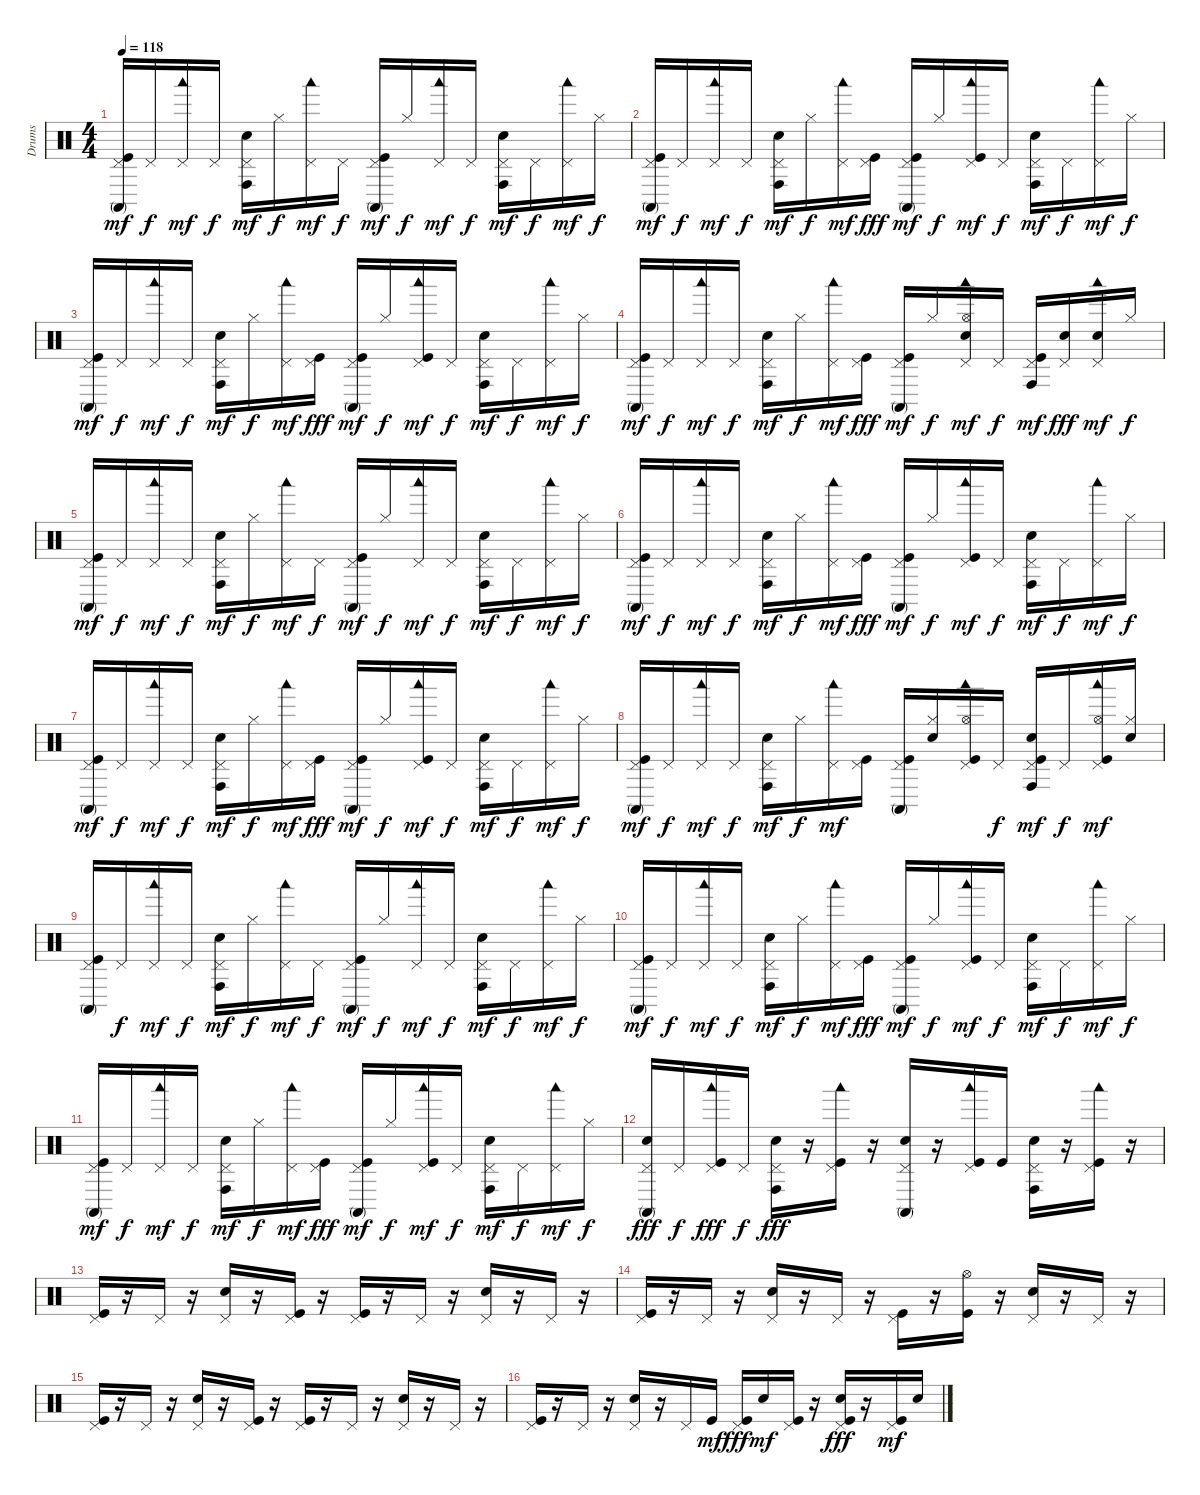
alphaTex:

\track ("Drums" "Drums") {instrument percussion}
\staff {score}
\articulation defaults
\ts (4 4)
\tempo 118
\clef neutral
\ks c
("Conga high (mute)" "Kick (hit)" "Pedal Hi-Hat (hit)").16{dy mf} "Pedal Hi-Hat (hit)".16{dy f} ("Woodblock low (hit)" "Pedal Hi-Hat (hit)").16{dy mf} "Pedal Hi-Hat (hit)".16{dy f} ("Electric Snare (hit)" "Conga high (hit)" "Pedal Hi-Hat (hit)").16{dy mf} "Hi-Hat (closed)".16{dy f} ("Woodblock low (hit)" "Pedal Hi-Hat (hit)").16{dy mf} "Pedal Hi-Hat (hit)".16{dy f} ("Kick (hit)" "Conga high (mute)" "Pedal Hi-Hat (hit)").16{dy mf} "Hi-Hat (closed)".16{dy f} ("Woodblock low (hit)" "Pedal Hi-Hat (hit)").16{dy mf} "Pedal Hi-Hat (hit)".16{dy f} ("Electric Snare (hit)" "Conga high (hit)" "Pedal Hi-Hat (hit)").16{dy mf} "Pedal Hi-Hat (hit)".16{dy f} ("Woodblock low (hit)" "Pedal Hi-Hat (hit)").16{dy mf} "Hi-Hat (closed)".16{dy f} |
("Kick (hit)" "Conga high (mute)" "Pedal Hi-Hat (hit)").16{dy mf} "Pedal Hi-Hat (hit)".16{dy f} ("Woodblock low (hit)" "Pedal Hi-Hat (hit)").16{dy mf} "Pedal Hi-Hat (hit)".16{dy f} ("Electric Snare (hit)" "Conga high (hit)" "Pedal Hi-Hat (hit)").16{dy mf} "Hi-Hat (closed)".16{dy f} ("Woodblock low (hit)" "Pedal Hi-Hat (hit)").16{dy mf} ("Kick (hit)" "Pedal Hi-Hat (hit)").16{dy fff} ("Kick (hit)" "Conga high (mute)" "Pedal Hi-Hat (hit)").16{dy mf} "Hi-Hat (closed)".16{dy f} ("Kick (hit)" "Woodblock low (hit)" "Pedal Hi-Hat (hit)").16{dy mf} "Pedal Hi-Hat (hit)".16{dy f} ("Electric Snare (hit)" "Conga high (hit)" "Pedal Hi-Hat (hit)").16{dy mf} "Pedal Hi-Hat (hit)".16{dy f} ("Woodblock low (hit)" "Pedal Hi-Hat (hit)").16{dy mf} "Hi-Hat (closed)".16{dy f} |
("Kick (hit)" "Conga high (mute)" "Pedal Hi-Hat (hit)").16{dy mf} "Pedal Hi-Hat (hit)".16{dy f} ("Woodblock low (hit)" "Pedal Hi-Hat (hit)").16{dy mf} "Pedal Hi-Hat (hit)".16{dy f} ("Electric Snare (hit)" "Conga high (hit)" "Pedal Hi-Hat (hit)").16{dy mf} "Hi-Hat (closed)".16{dy f} ("Woodblock low (hit)" "Pedal Hi-Hat (hit)").16{dy mf} ("Kick (hit)" "Pedal Hi-Hat (hit)").16{dy fff} ("Kick (hit)" "Conga high (mute)" "Pedal Hi-Hat (hit)").16{dy mf} "Hi-Hat (closed)".16{dy f} ("Kick (hit)" "Woodblock low (hit)" "Pedal Hi-Hat (hit)").16{dy mf} "Pedal Hi-Hat (hit)".16{dy f} ("Electric Snare (hit)" "Conga high (hit)" "Pedal Hi-Hat (hit)").16{dy mf} "Pedal Hi-Hat (hit)".16{dy f} ("Woodblock low (hit)" "Pedal Hi-Hat (hit)").16{dy mf} "Hi-Hat (closed)".16{dy f} |
("Kick (hit)" "Conga high (mute)" "Pedal Hi-Hat (hit)").16{dy mf} "Pedal Hi-Hat (hit)".16{dy f} ("Woodblock low (hit)" "Pedal Hi-Hat (hit)").16{dy mf} "Pedal Hi-Hat (hit)".16{dy f} ("Electric Snare (hit)" "Conga high (hit)" "Pedal Hi-Hat (hit)").16{dy mf} "Hi-Hat (closed)".16{dy f} ("Woodblock low (hit)" "Pedal Hi-Hat (hit)").16{dy mf} ("Kick (hit)" "Pedal Hi-Hat (hit)").16{dy fff} ("Kick (hit)" "Conga high (mute)" "Pedal Hi-Hat (hit)").16{dy mf} "Hi-Hat (closed)".16{dy f} ("Woodblock low (hit)" "Electric Snare (hit)" "Pedal Hi-Hat (hit)" "Hi-Hat (open)").16{dy mf} "Pedal Hi-Hat (hit)".16{dy f} ("Conga high (hit)" "Kick (hit)" "Pedal Hi-Hat (hit)").16{dy mf} ("Electric Snare (hit)" "Pedal Hi-Hat (hit)").16{dy fff} ("Woodblock low (hit)" "Electric Snare (hit)" "Pedal Hi-Hat (hit)").16{dy mf} "Hi-Hat (closed)".16{dy f} |
("Kick (hit)" "Conga high (mute)" "Pedal Hi-Hat (hit)").16{dy mf} "Pedal Hi-Hat (hit)".16{dy f} ("Woodblock low (hit)" "Pedal Hi-Hat (hit)").16{dy mf} "Pedal Hi-Hat (hit)".16{dy f} ("Electric Snare (hit)" "Conga high (hit)" "Pedal Hi-Hat (hit)").16{dy mf} "Hi-Hat (closed)".16{dy f} ("Woodblock low (hit)" "Pedal Hi-Hat (hit)").16{dy mf} "Pedal Hi-Hat (hit)".16{dy f} ("Kick (hit)" "Conga high (mute)" "Pedal Hi-Hat (hit)").16{dy mf} "Hi-Hat (closed)".16{dy f} ("Woodblock low (hit)" "Pedal Hi-Hat (hit)").16{dy mf} "Pedal Hi-Hat (hit)".16{dy f} ("Electric Snare (hit)" "Conga high (hit)" "Pedal Hi-Hat (hit)").16{dy mf} "Pedal Hi-Hat (hit)".16{dy f} ("Woodblock low (hit)" "Pedal Hi-Hat (hit)").16{dy mf} "Hi-Hat (closed)".16{dy f} |
("Kick (hit)" "Conga high (mute)" "Pedal Hi-Hat (hit)").16{dy mf} "Pedal Hi-Hat (hit)".16{dy f} ("Woodblock low (hit)" "Pedal Hi-Hat (hit)").16{dy mf} "Pedal Hi-Hat (hit)".16{dy f} ("Electric Snare (hit)" "Conga high (hit)" "Pedal Hi-Hat (hit)").16{dy mf} "Hi-Hat (closed)".16{dy f} ("Woodblock low (hit)" "Pedal Hi-Hat (hit)").16{dy mf} ("Kick (hit)" "Pedal Hi-Hat (hit)").16{dy fff} ("Kick (hit)" "Conga high (mute)" "Pedal Hi-Hat (hit)").16{dy mf} "Hi-Hat (closed)".16{dy f} ("Kick (hit)" "Woodblock low (hit)" "Pedal Hi-Hat (hit)").16{dy mf} "Pedal Hi-Hat (hit)".16{dy f} ("Electric Snare (hit)" "Conga high (hit)" "Pedal Hi-Hat (hit)").16{dy mf} "Pedal Hi-Hat (hit)".16{dy f} ("Woodblock low (hit)" "Pedal Hi-Hat (hit)").16{dy mf} "Hi-Hat (closed)".16{dy f} |
("Kick (hit)" "Conga high (mute)" "Pedal Hi-Hat (hit)").16{dy mf} "Pedal Hi-Hat (hit)".16{dy f} ("Woodblock low (hit)" "Pedal Hi-Hat (hit)").16{dy mf} "Pedal Hi-Hat (hit)".16{dy f} ("Electric Snare (hit)" "Conga high (hit)" "Pedal Hi-Hat (hit)").16{dy mf} "Hi-Hat (closed)".16{dy f} ("Woodblock low (hit)" "Pedal Hi-Hat (hit)").16{dy mf} ("Kick (hit)" "Pedal Hi-Hat (hit)").16{dy fff} ("Kick (hit)" "Conga high (mute)" "Pedal Hi-Hat (hit)").16{dy mf} "Hi-Hat (closed)".16{dy f} ("Kick (hit)" "Woodblock low (hit)" "Pedal Hi-Hat (hit)").16{dy mf} "Pedal Hi-Hat (hit)".16{dy f} ("Electric Snare (hit)" "Conga high (hit)" "Pedal Hi-Hat (hit)").16{dy mf} "Pedal Hi-Hat (hit)".16{dy f} ("Woodblock low (hit)" "Pedal Hi-Hat (hit)").16{dy mf} "Hi-Hat (closed)".16{dy f} |
("Kick (hit)" "Conga high (mute)" "Pedal Hi-Hat (hit)").16{dy mf} "Pedal Hi-Hat (hit)".16{dy f} ("Woodblock low (hit)" "Pedal Hi-Hat (hit)").16{dy mf} "Pedal Hi-Hat (hit)".16{dy f} ("Electric Snare (hit)" "Conga high (hit)" "Pedal Hi-Hat (hit)").16{dy mf} "Hi-Hat (closed)".16{dy f} ("Woodblock low (hit)" "Pedal Hi-Hat (hit)").16{dy mf} ("Kick (hit)" "Pedal Hi-Hat (hit)").16 ("Conga high (mute)" "Kick (hit)" "Pedal Hi-Hat (hit)").16 ("Electric Snare (hit)" "Hi-Hat (closed)").16 ("Woodblock low (hit)" "Hi-Hat (open)" "Kick (hit)" "Pedal Hi-Hat (hit)").16 "Pedal Hi-Hat (hit)".16{dy f} ("Conga high (hit)" "Kick (hit)" "Electric Snare (hit)" "Pedal Hi-Hat (hit)").16{dy mf} "Pedal Hi-Hat (hit)".16{dy f} ("Woodblock low (hit)" "Hi-Hat (open)" "Kick (hit)" "Pedal Hi-Hat (hit)").16{dy mf} ("Electric Snare (hit)" "Hi-Hat (closed)").16 |
("Conga high (mute)" "Kick (hit)" "Pedal Hi-Hat (hit)").16 "Pedal Hi-Hat (hit)".16{dy f} ("Woodblock low (hit)" "Pedal Hi-Hat (hit)").16{dy mf} "Pedal Hi-Hat (hit)".16{dy f} ("Electric Snare (hit)" "Conga high (hit)" "Pedal Hi-Hat (hit)").16{dy mf} "Hi-Hat (closed)".16{dy f} ("Woodblock low (hit)" "Pedal Hi-Hat (hit)").16{dy mf} "Pedal Hi-Hat (hit)".16{dy f} ("Kick (hit)" "Conga high (mute)" "Pedal Hi-Hat (hit)").16{dy mf} "Hi-Hat (closed)".16{dy f} ("Woodblock low (hit)" "Pedal Hi-Hat (hit)").16{dy mf} "Pedal Hi-Hat (hit)".16{dy f} ("Electric Snare (hit)" "Conga high (hit)" "Pedal Hi-Hat (hit)").16{dy mf} "Pedal Hi-Hat (hit)".16{dy f} ("Woodblock low (hit)" "Pedal Hi-Hat (hit)").16{dy mf} "Hi-Hat (closed)".16{dy f} |
("Kick (hit)" "Conga high (mute)" "Pedal Hi-Hat (hit)").16{dy mf} "Pedal Hi-Hat (hit)".16{dy f} ("Woodblock low (hit)" "Pedal Hi-Hat (hit)").16{dy mf} "Pedal Hi-Hat (hit)".16{dy f} ("Electric Snare (hit)" "Conga high (hit)" "Pedal Hi-Hat (hit)").16{dy mf} "Hi-Hat (closed)".16{dy f} ("Woodblock low (hit)" "Pedal Hi-Hat (hit)").16{dy mf} ("Kick (hit)" "Pedal Hi-Hat (hit)").16{dy fff} ("Kick (hit)" "Conga high (mute)" "Pedal Hi-Hat (hit)").16{dy mf} "Hi-Hat (closed)".16{dy f} ("Kick (hit)" "Woodblock low (hit)" "Pedal Hi-Hat (hit)").16{dy mf} "Pedal Hi-Hat (hit)".16{dy f} ("Electric Snare (hit)" "Conga high (hit)" "Pedal Hi-Hat (hit)").16{dy mf} "Pedal Hi-Hat (hit)".16{dy f} ("Woodblock low (hit)" "Pedal Hi-Hat (hit)").16{dy mf} "Hi-Hat (closed)".16{dy f} |
("Kick (hit)" "Conga high (mute)" "Pedal Hi-Hat (hit)").16{dy mf} "Pedal Hi-Hat (hit)".16{dy f} ("Woodblock low (hit)" "Pedal Hi-Hat (hit)").16{dy mf} "Pedal Hi-Hat (hit)".16{dy f} ("Electric Snare (hit)" "Conga high (hit)" "Pedal Hi-Hat (hit)").16{dy mf} "Hi-Hat (closed)".16{dy f} ("Woodblock low (hit)" "Pedal Hi-Hat (hit)").16{dy mf} ("Kick (hit)" "Pedal Hi-Hat (hit)").16{dy fff} ("Kick (hit)" "Conga high (mute)" "Pedal Hi-Hat (hit)").16{dy mf} "Hi-Hat (closed)".16{dy f} ("Kick (hit)" "Woodblock low (hit)" "Pedal Hi-Hat (hit)").16{dy mf} "Pedal Hi-Hat (hit)".16{dy f} ("Electric Snare (hit)" "Conga high (hit)" "Pedal Hi-Hat (hit)").16{dy mf} "Pedal Hi-Hat (hit)".16{dy f} ("Woodblock low (hit)" "Pedal Hi-Hat (hit)").16{dy mf} "Hi-Hat (closed)".16{dy f} |
("Conga high (mute)" "Pedal Hi-Hat (hit)" "Electric Snare (hit)").16{dy fff} "Pedal Hi-Hat (hit)".16{dy f} ("Woodblock low (hit)" "Pedal Hi-Hat (hit)" "Kick (hit)").16{dy fff} "Pedal Hi-Hat (hit)".16{dy f} ("Conga high (hit)" "Pedal Hi-Hat (hit)" "Electric Snare (hit)").16{dy fff} r.16 ("Woodblock low (hit)" "Pedal Hi-Hat (hit)" "Kick (hit)").16 r.16 ("Conga high (mute)" "Pedal Hi-Hat (hit)" "Electric Snare (hit)").16 r.16 ("Woodblock low (hit)" "Pedal Hi-Hat (hit)" "Kick (hit)").16 "Kick (hit)".16 ("Conga high (hit)" "Pedal Hi-Hat (hit)" "Electric Snare (hit)").16 r.16 ("Woodblock low (hit)" "Pedal Hi-Hat (hit)" "Kick (hit)").16 r.16 |
("Pedal Hi-Hat (hit)" "Kick (hit)").16 r.16 "Pedal Hi-Hat (hit)".16 r.16 ("Pedal Hi-Hat (hit)" "Electric Snare (hit)").16 r.16 ("Pedal Hi-Hat (hit)" "Kick (hit)").16 r.16 ("Pedal Hi-Hat (hit)" "Kick (hit)").16 r.16 "Pedal Hi-Hat (hit)".16 r.16 ("Pedal Hi-Hat (hit)" "Electric Snare (hit)").16 r.16 "Pedal Hi-Hat (hit)".16 r.16 |
("Pedal Hi-Hat (hit)" "Kick (hit)").16 r.16 "Pedal Hi-Hat (hit)".16 r.16 ("Pedal Hi-Hat (hit)" "Electric Snare (hit)").16 r.16 "Pedal Hi-Hat (hit)".16 r.16 ("Pedal Hi-Hat (hit)" "Kick (hit)").16 r.16 ("Kick (hit)" "Hi-Hat (open)").16 r.16 ("Electric Snare (hit)" "Pedal Hi-Hat (hit)").16 r.16 "Pedal Hi-Hat (hit)".16 r.16 |
("Kick (hit)" "Pedal Hi-Hat (hit)").16 r.16 "Pedal Hi-Hat (hit)".16 r.16 ("Pedal Hi-Hat (hit)" "Electric Snare (hit)").16 r.16 ("Pedal Hi-Hat (hit)" "Kick (hit)").16 r.16 ("Pedal Hi-Hat (hit)" "Kick (hit)").16 r.16 "Pedal Hi-Hat (hit)".16 r.16 ("Pedal Hi-Hat (hit)" "Electric Snare (hit)").16 r.16 "Pedal Hi-Hat (hit)".16 r.16 |
("Pedal Hi-Hat (hit)" "Kick (hit)").16 r.16 "Pedal Hi-Hat (hit)".16 r.16 ("Pedal Hi-Hat (hit)" "Electric Snare (hit)").16 r.16 "Pedal Hi-Hat (hit)".16 "Kick (hit)".16{dy mf} ("Pedal Hi-Hat (hit)" "Kick (hit)").16{dy fff} "Electric Snare (hit)".16{dy mf} ("Pedal Hi-Hat (hit)" "Kick (hit)").16 r.16 ("Pedal Hi-Hat (hit)" "Kick (hit)" "Electric Snare (hit)").16{dy fff} r.16 ("Pedal Hi-Hat (hit)" "Kick (hit)").16{dy mf} "Electric Snare (hit)".16
